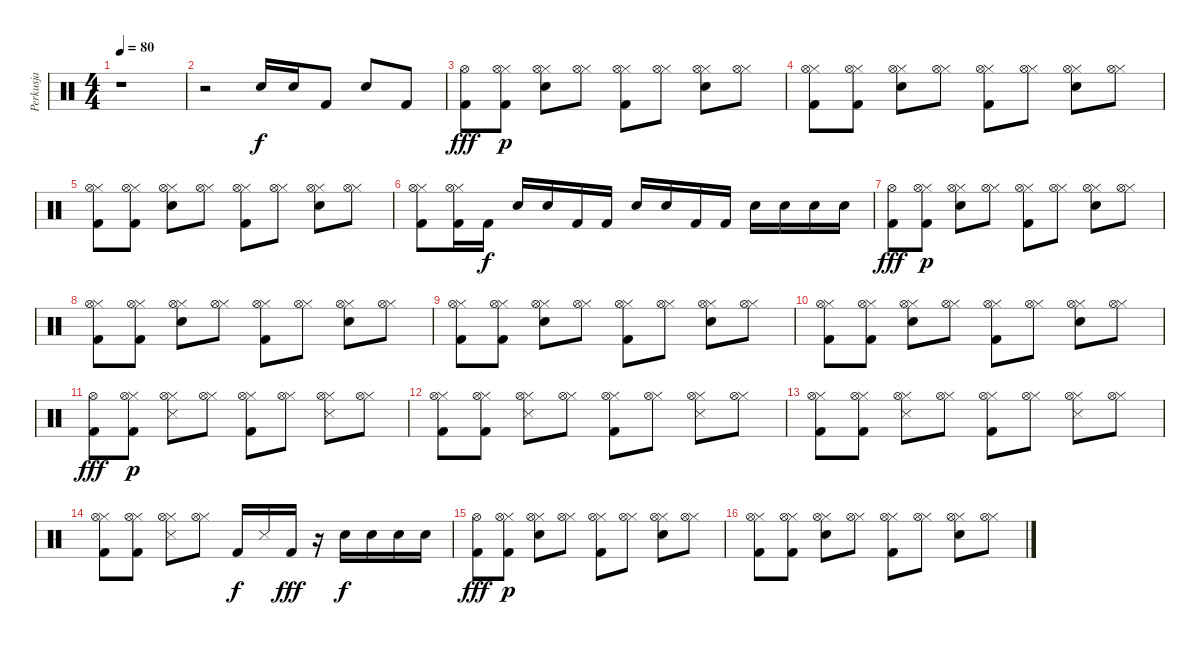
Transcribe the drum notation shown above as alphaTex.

\track ("Perkusja" "Perkusja") {instrument percussion}
\staff {score}
\articulation defaults
\ts (4 4)
\tempo 80
\clef neutral
\ks c
r.1{dy f} |
r.2 "Electric Snare (hit)".16 "Electric Snare (hit)".16 "Kick (hit) 2".8 "Electric Snare (hit)".8 "Kick (hit) 2".8 |
("Kick (hit) 2" "Hi-Hat (open)").8{dy fff} ("Kick (hit) 2" "Hi-Hat (closed)" "Hi-Hat (open)").8{dy p} ("Electric Snare (hit)" "Hi-Hat (closed)" "Hi-Hat (open)").8 ("Hi-Hat (closed)" "Hi-Hat (open)").8 ("Kick (hit) 2" "Hi-Hat (closed)" "Hi-Hat (open)").8 ("Hi-Hat (closed)" "Hi-Hat (open)").8 ("Electric Snare (hit)" "Hi-Hat (closed)" "Hi-Hat (open)").8 ("Hi-Hat (closed)" "Hi-Hat (open)").8 |
("Kick (hit) 2" "Hi-Hat (closed)" "Hi-Hat (open)").8 ("Kick (hit) 2" "Hi-Hat (closed)" "Hi-Hat (open)").8 ("Electric Snare (hit)" "Hi-Hat (closed)" "Hi-Hat (open)").8 ("Hi-Hat (closed)" "Hi-Hat (open)").8 ("Kick (hit) 2" "Hi-Hat (closed)" "Hi-Hat (open)").8 ("Hi-Hat (closed)" "Hi-Hat (open)").8 ("Electric Snare (hit)" "Hi-Hat (closed)" "Hi-Hat (open)").8 ("Hi-Hat (closed)" "Hi-Hat (open)").8 |
("Kick (hit) 2" "Hi-Hat (closed)" "Hi-Hat (open)").8 ("Kick (hit) 2" "Hi-Hat (closed)" "Hi-Hat (open)").8 ("Electric Snare (hit)" "Hi-Hat (closed)" "Hi-Hat (open)").8 ("Hi-Hat (closed)" "Hi-Hat (open)").8 ("Kick (hit) 2" "Hi-Hat (closed)" "Hi-Hat (open)").8 ("Hi-Hat (closed)" "Hi-Hat (open)").8 ("Electric Snare (hit)" "Hi-Hat (closed)" "Hi-Hat (open)").8 ("Hi-Hat (closed)" "Hi-Hat (open)").8 |
("Kick (hit) 2" "Hi-Hat (closed)" "Hi-Hat (open)").8 ("Kick (hit) 2" "Hi-Hat (closed)" "Hi-Hat (open)").16 "Kick (hit) 2".16{dy f} "Electric Snare (hit)".16 "Electric Snare (hit)".16 "Kick (hit) 2".16 "Kick (hit) 2".16 "Electric Snare (hit)".16 "Electric Snare (hit)".16 "Kick (hit) 2".16 "Kick (hit) 2".16 "Electric Snare (hit)".16 "Electric Snare (hit)".16 "Electric Snare (hit)".16 "Electric Snare (hit)".16 |
("Kick (hit) 2" "Hi-Hat (open)").8{dy fff} ("Kick (hit) 2" "Hi-Hat (closed)" "Hi-Hat (open)").8{dy p} ("Electric Snare (hit)" "Hi-Hat (closed)" "Hi-Hat (open)").8 ("Hi-Hat (closed)" "Hi-Hat (open)").8 ("Kick (hit) 2" "Hi-Hat (closed)" "Hi-Hat (open)").8 ("Hi-Hat (closed)" "Hi-Hat (open)").8 ("Electric Snare (hit)" "Hi-Hat (closed)" "Hi-Hat (open)").8 ("Hi-Hat (closed)" "Hi-Hat (open)").8 |
("Kick (hit) 2" "Hi-Hat (closed)" "Hi-Hat (open)").8 ("Kick (hit) 2" "Hi-Hat (closed)" "Hi-Hat (open)").8 ("Electric Snare (hit)" "Hi-Hat (closed)" "Hi-Hat (open)").8 ("Hi-Hat (closed)" "Hi-Hat (open)").8 ("Kick (hit) 2" "Hi-Hat (closed)" "Hi-Hat (open)").8 ("Hi-Hat (closed)" "Hi-Hat (open)").8 ("Electric Snare (hit)" "Hi-Hat (closed)" "Hi-Hat (open)").8 ("Hi-Hat (closed)" "Hi-Hat (open)").8 |
("Kick (hit) 2" "Hi-Hat (closed)" "Hi-Hat (open)").8 ("Kick (hit) 2" "Hi-Hat (closed)" "Hi-Hat (open)").8 ("Electric Snare (hit)" "Hi-Hat (closed)" "Hi-Hat (open)").8 ("Hi-Hat (closed)" "Hi-Hat (open)").8 ("Kick (hit) 2" "Hi-Hat (closed)" "Hi-Hat (open)").8 ("Hi-Hat (closed)" "Hi-Hat (open)").8 ("Electric Snare (hit)" "Hi-Hat (closed)" "Hi-Hat (open)").8 ("Hi-Hat (closed)" "Hi-Hat (open)").8 |
("Kick (hit) 2" "Hi-Hat (closed)" "Hi-Hat (open)").8 ("Kick (hit) 2" "Hi-Hat (closed)" "Hi-Hat (open)").8 ("Electric Snare (hit)" "Hi-Hat (closed)" "Hi-Hat (open)").8 ("Hi-Hat (closed)" "Hi-Hat (open)").8 ("Kick (hit) 2" "Hi-Hat (closed)" "Hi-Hat (open)").8 ("Hi-Hat (closed)" "Hi-Hat (open)").8 ("Electric Snare (hit)" "Hi-Hat (closed)" "Hi-Hat (open)").8 ("Hi-Hat (closed)" "Hi-Hat (open)").8 |
("Kick (hit) 2" "Hi-Hat (open)").8{dy fff} ("Kick (hit) 2" "Hi-Hat (closed)" "Hi-Hat (open)").8{dy p} ("Snare (side stick) 3" "Hi-Hat (closed)" "Hi-Hat (open)").8 ("Hi-Hat (closed)" "Hi-Hat (open)").8 ("Kick (hit) 2" "Hi-Hat (closed)" "Hi-Hat (open)").8 ("Hi-Hat (closed)" "Hi-Hat (open)").8 ("Snare (side stick) 3" "Hi-Hat (closed)" "Hi-Hat (open)").8 ("Hi-Hat (closed)" "Hi-Hat (open)").8 |
("Kick (hit) 2" "Hi-Hat (closed)" "Hi-Hat (open)").8 ("Kick (hit) 2" "Hi-Hat (closed)" "Hi-Hat (open)").8 ("Snare (side stick) 3" "Hi-Hat (closed)" "Hi-Hat (open)").8 ("Hi-Hat (closed)" "Hi-Hat (open)").8 ("Kick (hit) 2" "Hi-Hat (closed)" "Hi-Hat (open)").8 ("Hi-Hat (closed)" "Hi-Hat (open)").8 ("Snare (side stick) 3" "Hi-Hat (closed)" "Hi-Hat (open)").8 ("Hi-Hat (closed)" "Hi-Hat (open)").8 |
("Kick (hit) 2" "Hi-Hat (closed)" "Hi-Hat (open)").8 ("Kick (hit) 2" "Hi-Hat (closed)" "Hi-Hat (open)").8 ("Snare (side stick) 3" "Hi-Hat (closed)" "Hi-Hat (open)").8 ("Hi-Hat (closed)" "Hi-Hat (open)").8 ("Kick (hit) 2" "Hi-Hat (closed)" "Hi-Hat (open)").8 ("Hi-Hat (closed)" "Hi-Hat (open)").8 ("Snare (side stick) 3" "Hi-Hat (closed)" "Hi-Hat (open)").8 ("Hi-Hat (closed)" "Hi-Hat (open)").8 |
("Kick (hit) 2" "Hi-Hat (closed)" "Hi-Hat (open)").8 ("Kick (hit) 2" "Hi-Hat (closed)" "Hi-Hat (open)").8 ("Snare (side stick) 3" "Hi-Hat (closed)" "Hi-Hat (open)").8 ("Hi-Hat (closed)" "Hi-Hat (open)").8 "Kick (hit) 2".16{dy f} "Snare (side stick) 3".16 "Kick (hit) 2".16{dy fff} r.16 "Electric Snare (hit)".16{dy f} "Electric Snare (hit)".16 "Electric Snare (hit)".16 "Electric Snare (hit)".16 |
("Kick (hit) 2" "Hi-Hat (open)").8{dy fff} ("Kick (hit) 2" "Hi-Hat (closed)" "Hi-Hat (open)").8{dy p} ("Electric Snare (hit)" "Hi-Hat (closed)" "Hi-Hat (open)").8 ("Hi-Hat (closed)" "Hi-Hat (open)").8 ("Kick (hit) 2" "Hi-Hat (closed)" "Hi-Hat (open)").8 ("Hi-Hat (closed)" "Hi-Hat (open)").8 ("Electric Snare (hit)" "Hi-Hat (closed)" "Hi-Hat (open)").8 ("Hi-Hat (closed)" "Hi-Hat (open)").8 |
("Kick (hit) 2" "Hi-Hat (closed)" "Hi-Hat (open)").8 ("Kick (hit) 2" "Hi-Hat (closed)" "Hi-Hat (open)").8 ("Electric Snare (hit)" "Hi-Hat (closed)" "Hi-Hat (open)").8 ("Hi-Hat (closed)" "Hi-Hat (open)").8 ("Kick (hit) 2" "Hi-Hat (closed)" "Hi-Hat (open)").8 ("Hi-Hat (closed)" "Hi-Hat (open)").8 ("Electric Snare (hit)" "Hi-Hat (closed)" "Hi-Hat (open)").8 ("Hi-Hat (closed)" "Hi-Hat (open)").8
